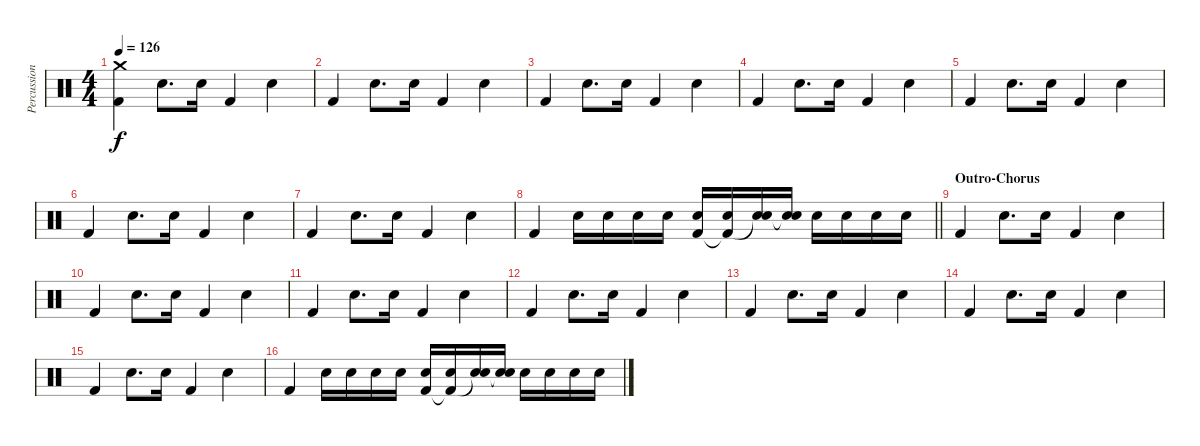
\track ("Percussion" "Percussion") {instrument percussion}
\staff {score}
\articulation defaults
\ts (4 4)
\tempo 126
\clef neutral
\ks c
("Crash medium (hit)" "Kick (hit) 2").4{dy f} "Electric Snare (hit)".8{d} "Electric Snare (hit)".16 "Kick (hit) 2".4 "Electric Snare (hit)".4 |
"Kick (hit) 2".4 "Electric Snare (hit)".8{d} "Electric Snare (hit)".16 "Kick (hit) 2".4 "Electric Snare (hit)".4 |
"Kick (hit) 2".4 "Electric Snare (hit)".8{d} "Electric Snare (hit)".16 "Kick (hit) 2".4 "Electric Snare (hit)".4 |
"Kick (hit) 2".4 "Electric Snare (hit)".8{d} "Electric Snare (hit)".16 "Kick (hit) 2".4 "Electric Snare (hit)".4 |
"Kick (hit) 2".4 "Electric Snare (hit)".8{d} "Electric Snare (hit)".16 "Kick (hit) 2".4 "Electric Snare (hit)".4 |
"Kick (hit) 2".4 "Electric Snare (hit)".8{d} "Electric Snare (hit)".16 "Kick (hit) 2".4 "Electric Snare (hit)".4 |
"Kick (hit) 2".4 "Electric Snare (hit)".8{d} "Electric Snare (hit)".16 "Kick (hit) 2".4 "Electric Snare (hit)".4 |
\barLineRight lightlight "Kick (hit) 2".4 "Electric Snare (hit)".16 "Electric Snare (hit)".16 "Electric Snare (hit)".16 "Electric Snare (hit)".16
("Electric Snare (hit)" "Kick (hit) 2").16 ("Electric Snare (hit)" "Kick (hit) 2"{t}).16 ("Electric Snare (hit)" "Snare (hit)"{t}).16 ("Electric Snare (hit)" "Snare (hit)"{t}).16 "Electric Snare (hit)".16 "Electric Snare (hit)".16 "Electric Snare (hit)".16 "Electric Snare (hit)".16 |
\section ("" "Outro-Chorus")
"Kick (hit) 2".4 "Electric Snare (hit)".8{d} "Electric Snare (hit)".16 "Kick (hit) 2".4 "Electric Snare (hit)".4 |
"Kick (hit) 2".4 "Electric Snare (hit)".8{d} "Electric Snare (hit)".16 "Kick (hit) 2".4 "Electric Snare (hit)".4 |
"Kick (hit) 2".4 "Electric Snare (hit)".8{d} "Electric Snare (hit)".16 "Kick (hit) 2".4 "Electric Snare (hit)".4 |
"Kick (hit) 2".4 "Electric Snare (hit)".8{d} "Electric Snare (hit)".16 "Kick (hit) 2".4 "Electric Snare (hit)".4 |
"Kick (hit) 2".4 "Electric Snare (hit)".8{d} "Electric Snare (hit)".16 "Kick (hit) 2".4 "Electric Snare (hit)".4 |
"Kick (hit) 2".4 "Electric Snare (hit)".8{d} "Electric Snare (hit)".16 "Kick (hit) 2".4 "Electric Snare (hit)".4 |
"Kick (hit) 2".4 "Electric Snare (hit)".8{d} "Electric Snare (hit)".16 "Kick (hit) 2".4 "Electric Snare (hit)".4 |
"Kick (hit) 2".4 "Electric Snare (hit)".16 "Electric Snare (hit)".16 "Electric Snare (hit)".16 "Electric Snare (hit)".16 ("Electric Snare (hit)" "Kick (hit) 2").16 ("Electric Snare (hit)" "Kick (hit) 2"{t}).16 ("Electric Snare (hit)" "Snare (hit)"{t}).16 ("Electric Snare (hit)" "Snare (hit)"{t}).16 "Electric Snare (hit)".16 "Electric Snare (hit)".16 "Electric Snare (hit)".16 "Electric Snare (hit)".16
